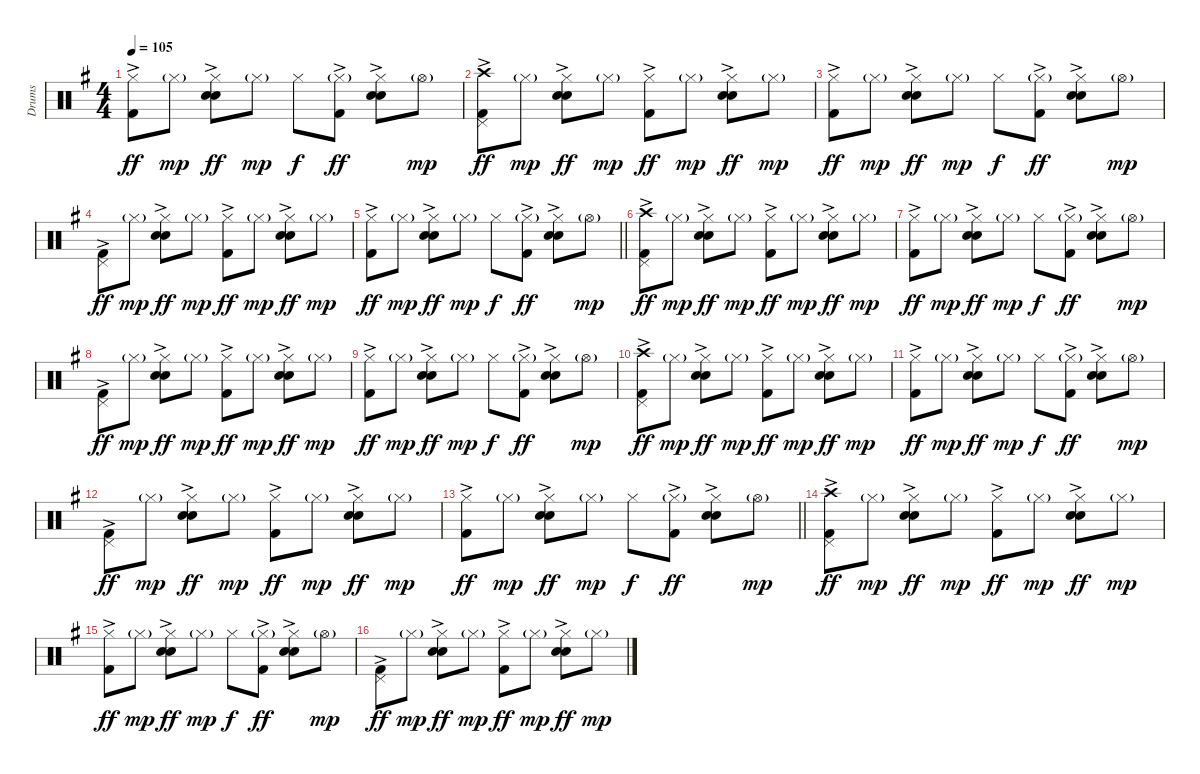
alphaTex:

\track ("Drums" "Drums") {instrument percussion}
\staff {score}
\articulation defaults
\ts (4 4)
\tempo 105
\clef neutral
\ks g
("Hi-Hat (closed)" "Kick (hit) 2"{ac}).8{dy ff} "Hi-Hat (closed)"{g}.8{dy mp} ("Hi-Hat (closed)" "Electric Snare (hit)"{ac} "Snare (hit) 2").8{dy ff} "Hi-Hat (closed)"{g}.8{dy mp} "Hi-Hat (closed)".8{dy f} ("Hi-Hat (closed)"{g} "Kick (hit) 2"{ac}).8{dy ff} ("Hi-Hat (closed)" "Electric Snare (hit)"{ac} "Snare (hit) 2").8 "Hi-Hat (open)"{g}.8{dy mp} |
("Pedal Hi-Hat (hit)" "Crash high (hit)" "Kick (hit) 2"{ac}).8{dy ff} "Hi-Hat (closed)"{g}.8{dy mp} ("Hi-Hat (closed)" "Electric Snare (hit)"{ac} "Snare (hit) 2").8{dy ff} "Hi-Hat (closed)"{g}.8{dy mp} ("Hi-Hat (closed)" "Kick (hit) 2"{ac}).8{dy ff} "Hi-Hat (closed)"{g}.8{dy mp} ("Hi-Hat (closed)" "Electric Snare (hit)"{ac} "Snare (hit) 2").8{dy ff} "Hi-Hat (closed)"{g}.8{dy mp} |
("Hi-Hat (closed)" "Kick (hit) 2"{ac}).8{dy ff} "Hi-Hat (closed)"{g}.8{dy mp} ("Hi-Hat (closed)" "Electric Snare (hit)"{ac} "Snare (hit) 2").8{dy ff} "Hi-Hat (closed)"{g}.8{dy mp} "Hi-Hat (closed)".8{dy f} ("Hi-Hat (closed)"{g} "Kick (hit) 2"{ac}).8{dy ff} ("Hi-Hat (closed)" "Electric Snare (hit)"{ac} "Snare (hit) 2").8 "Hi-Hat (open)"{g}.8{dy mp} |
("Pedal Hi-Hat (hit)" "Kick (hit) 2"{ac}).8{dy ff} "Hi-Hat (closed)"{g}.8{dy mp} ("Hi-Hat (closed)" "Electric Snare (hit)"{ac} "Snare (hit) 2").8{dy ff} "Hi-Hat (closed)"{g}.8{dy mp} ("Hi-Hat (closed)" "Kick (hit) 2"{ac}).8{dy ff} "Hi-Hat (closed)"{g}.8{dy mp} ("Hi-Hat (closed)" "Electric Snare (hit)"{ac} "Snare (hit) 2").8{dy ff} "Hi-Hat (closed)"{g}.8{dy mp} |
\barLineRight lightlight
("Hi-Hat (closed)" "Kick (hit) 2"{ac}).8{dy ff} "Hi-Hat (closed)"{g}.8{dy mp} ("Hi-Hat (closed)" "Electric Snare (hit)"{ac} "Snare (hit) 2").8{dy ff} "Hi-Hat (closed)"{g}.8{dy mp} "Hi-Hat (closed)".8{dy f} ("Hi-Hat (closed)"{g} "Kick (hit) 2"{ac}).8{dy ff} ("Hi-Hat (closed)" "Electric Snare (hit)"{ac} "Snare (hit) 2").8 "Hi-Hat (open)"{g}.8{dy mp} |
("Pedal Hi-Hat (hit)" "Crash high (hit)" "Kick (hit) 2"{ac}).8{dy ff} "Hi-Hat (closed)"{g}.8{dy mp} ("Hi-Hat (closed)" "Electric Snare (hit)"{ac} "Snare (hit) 2").8{dy ff} "Hi-Hat (closed)"{g}.8{dy mp} ("Hi-Hat (closed)" "Kick (hit) 2"{ac}).8{dy ff} "Hi-Hat (closed)"{g}.8{dy mp} ("Hi-Hat (closed)" "Electric Snare (hit)"{ac} "Snare (hit) 2").8{dy ff} "Hi-Hat (closed)"{g}.8{dy mp} |
("Hi-Hat (closed)" "Kick (hit) 2"{ac}).8{dy ff} "Hi-Hat (closed)"{g}.8{dy mp} ("Hi-Hat (closed)" "Electric Snare (hit)"{ac} "Snare (hit) 2").8{dy ff} "Hi-Hat (closed)"{g}.8{dy mp} "Hi-Hat (closed)".8{dy f} ("Hi-Hat (closed)"{g} "Kick (hit) 2"{ac}).8{dy ff} ("Hi-Hat (closed)" "Electric Snare (hit)"{ac} "Snare (hit) 2").8 "Hi-Hat (open)"{g}.8{dy mp} |
("Pedal Hi-Hat (hit)" "Kick (hit) 2"{ac}).8{dy ff} "Hi-Hat (closed)"{g}.8{dy mp} ("Hi-Hat (closed)" "Electric Snare (hit)"{ac} "Snare (hit) 2").8{dy ff} "Hi-Hat (closed)"{g}.8{dy mp} ("Hi-Hat (closed)" "Kick (hit) 2"{ac}).8{dy ff} "Hi-Hat (closed)"{g}.8{dy mp} ("Hi-Hat (closed)" "Electric Snare (hit)"{ac} "Snare (hit) 2").8{dy ff} "Hi-Hat (closed)"{g}.8{dy mp} |
("Hi-Hat (closed)" "Kick (hit) 2"{ac}).8{dy ff} "Hi-Hat (closed)"{g}.8{dy mp} ("Hi-Hat (closed)" "Electric Snare (hit)"{ac} "Snare (hit) 2").8{dy ff} "Hi-Hat (closed)"{g}.8{dy mp} "Hi-Hat (closed)".8{dy f} ("Hi-Hat (closed)"{g} "Kick (hit) 2"{ac}).8{dy ff} ("Hi-Hat (closed)" "Electric Snare (hit)"{ac} "Snare (hit) 2").8 "Hi-Hat (open)"{g}.8{dy mp} |
("Pedal Hi-Hat (hit)" "Crash high (hit)" "Kick (hit) 2"{ac}).8{dy ff} "Hi-Hat (closed)"{g}.8{dy mp} ("Hi-Hat (closed)" "Electric Snare (hit)"{ac} "Snare (hit) 2").8{dy ff} "Hi-Hat (closed)"{g}.8{dy mp} ("Hi-Hat (closed)" "Kick (hit) 2"{ac}).8{dy ff} "Hi-Hat (closed)"{g}.8{dy mp} ("Hi-Hat (closed)" "Electric Snare (hit)"{ac} "Snare (hit) 2").8{dy ff} "Hi-Hat (closed)"{g}.8{dy mp} |
("Hi-Hat (closed)" "Kick (hit) 2"{ac}).8{dy ff} "Hi-Hat (closed)"{g}.8{dy mp} ("Hi-Hat (closed)" "Electric Snare (hit)"{ac} "Snare (hit) 2").8{dy ff} "Hi-Hat (closed)"{g}.8{dy mp} "Hi-Hat (closed)".8{dy f} ("Hi-Hat (closed)"{g} "Kick (hit) 2"{ac}).8{dy ff} ("Hi-Hat (closed)" "Electric Snare (hit)"{ac} "Snare (hit) 2").8 "Hi-Hat (open)"{g}.8{dy mp} |
("Pedal Hi-Hat (hit)" "Kick (hit) 2"{ac}).8{dy ff} "Hi-Hat (closed)"{g}.8{dy mp} ("Hi-Hat (closed)" "Electric Snare (hit)"{ac} "Snare (hit) 2").8{dy ff} "Hi-Hat (closed)"{g}.8{dy mp} ("Hi-Hat (closed)" "Kick (hit) 2"{ac}).8{dy ff} "Hi-Hat (closed)"{g}.8{dy mp} ("Hi-Hat (closed)" "Electric Snare (hit)"{ac} "Snare (hit) 2").8{dy ff} "Hi-Hat (closed)"{g}.8{dy mp} |
\barLineRight lightlight
("Hi-Hat (closed)" "Kick (hit) 2"{ac}).8{dy ff} "Hi-Hat (closed)"{g}.8{dy mp} ("Hi-Hat (closed)" "Electric Snare (hit)"{ac} "Snare (hit) 2").8{dy ff} "Hi-Hat (closed)"{g}.8{dy mp} "Hi-Hat (closed)".8{dy f} ("Hi-Hat (closed)"{g} "Kick (hit) 2"{ac}).8{dy ff} ("Hi-Hat (closed)" "Electric Snare (hit)"{ac} "Snare (hit) 2").8 "Hi-Hat (open)"{g}.8{dy mp} |
("Pedal Hi-Hat (hit)" "Crash high (hit)" "Kick (hit) 2"{ac}).8{dy ff} "Hi-Hat (closed)"{g}.8{dy mp} ("Hi-Hat (closed)" "Electric Snare (hit)"{ac} "Snare (hit) 2").8{dy ff} "Hi-Hat (closed)"{g}.8{dy mp} ("Hi-Hat (closed)" "Kick (hit) 2"{ac}).8{dy ff} "Hi-Hat (closed)"{g}.8{dy mp} ("Hi-Hat (closed)" "Electric Snare (hit)"{ac} "Snare (hit) 2").8{dy ff} "Hi-Hat (closed)"{g}.8{dy mp} |
("Hi-Hat (closed)" "Kick (hit) 2"{ac}).8{dy ff} "Hi-Hat (closed)"{g}.8{dy mp} ("Hi-Hat (closed)" "Electric Snare (hit)"{ac} "Snare (hit) 2").8{dy ff} "Hi-Hat (closed)"{g}.8{dy mp} "Hi-Hat (closed)".8{dy f} ("Hi-Hat (closed)"{g} "Kick (hit) 2"{ac}).8{dy ff} ("Hi-Hat (closed)" "Electric Snare (hit)"{ac} "Snare (hit) 2").8 "Hi-Hat (open)"{g}.8{dy mp} |
("Pedal Hi-Hat (hit)" "Kick (hit) 2"{ac}).8{dy ff} "Hi-Hat (closed)"{g}.8{dy mp} ("Hi-Hat (closed)" "Electric Snare (hit)"{ac} "Snare (hit) 2").8{dy ff} "Hi-Hat (closed)"{g}.8{dy mp} ("Hi-Hat (closed)" "Kick (hit) 2"{ac}).8{dy ff} "Hi-Hat (closed)"{g}.8{dy mp} ("Hi-Hat (closed)" "Electric Snare (hit)"{ac} "Snare (hit) 2").8{dy ff} "Hi-Hat (closed)"{g}.8{dy mp}
